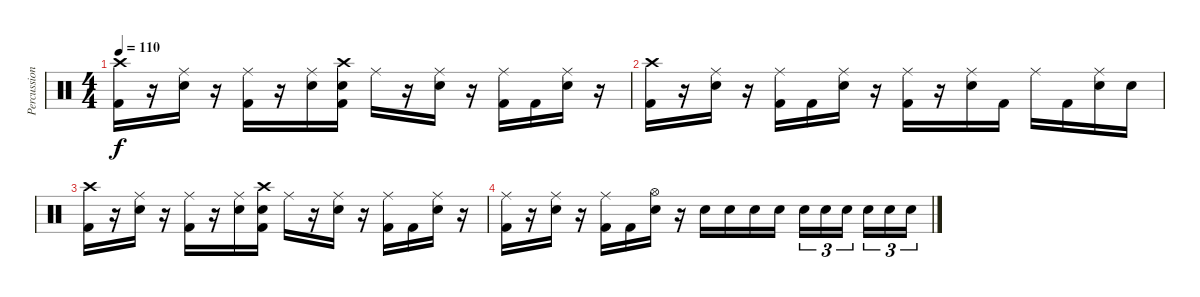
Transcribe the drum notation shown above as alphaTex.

\track ("Percussion" "Percussion") {instrument percussion}
\staff {score}
\articulation defaults
\ts (4 4)
\tempo 110
\clef neutral
\ks c
("Crash high (hit)" "Kick (hit) 2").16{dy f} r.16 ("Ride (middle)" "Electric Snare (hit)").16 r.16 ("Ride (middle)" "Kick (hit) 2").16 r.16 ("Ride (middle)" "Electric Snare (hit)").16 ("Crash high (hit)" "Kick (hit) 2" "Electric Snare (hit)").16 "Ride (middle)".16 r.16 ("Ride (middle)" "Electric Snare (hit)").16 r.16 ("Ride (middle)" "Kick (hit) 2").16 "Kick (hit) 2".16 ("Ride (middle)" "Electric Snare (hit)").16 r.16 |
("Crash high (hit)" "Kick (hit) 2").16 r.16 ("Ride (middle)" "Electric Snare (hit)").16 r.16 ("Ride (middle)" "Kick (hit) 2").16 "Kick (hit) 2".16 ("Ride (middle)" "Electric Snare (hit)").16 r.16 ("Ride (middle)" "Kick (hit) 2").16 r.16 ("Ride (middle)" "Electric Snare (hit)").16 "Kick (hit) 2".16 "Ride (middle)".16 "Kick (hit) 2".16 ("Ride (middle)" "Electric Snare (hit)").16 "Electric Snare (hit)".16 |
("Crash high (hit)" "Kick (hit) 2").16 r.16 ("Ride (middle)" "Electric Snare (hit)").16 r.16 ("Ride (middle)" "Kick (hit) 2").16 r.16 ("Ride (middle)" "Electric Snare (hit)").16 ("Crash high (hit)" "Kick (hit) 2" "Electric Snare (hit)").16 "Ride (middle)".16 r.16 ("Ride (middle)" "Electric Snare (hit)").16 r.16 ("Ride (middle)" "Kick (hit) 2").16 "Kick (hit) 2".16 ("Ride (middle)" "Electric Snare (hit)").16 r.16 |
("Ride (middle)" "Kick (hit) 2").16 r.16 ("Ride (middle)" "Electric Snare (hit)").16 r.16 ("Ride (middle)" "Kick (hit) 2").16 "Kick (hit) 2".16 ("Hi-Hat (open)" "Electric Snare (hit)").16 r.16 "Electric Snare (hit)".16 "Electric Snare (hit)".16 "Electric Snare (hit)".16 "Electric Snare (hit)".16 "Electric Snare (hit)".16{tu (3 2)} "Electric Snare (hit)".16{tu (3 2)} "Electric Snare (hit)".16{tu (3 2) beam splitsecondary} "Electric Snare (hit)".16{tu (3 2)} "Electric Snare (hit)".16{tu (3 2)} "Electric Snare (hit)".16{tu (3 2)}
